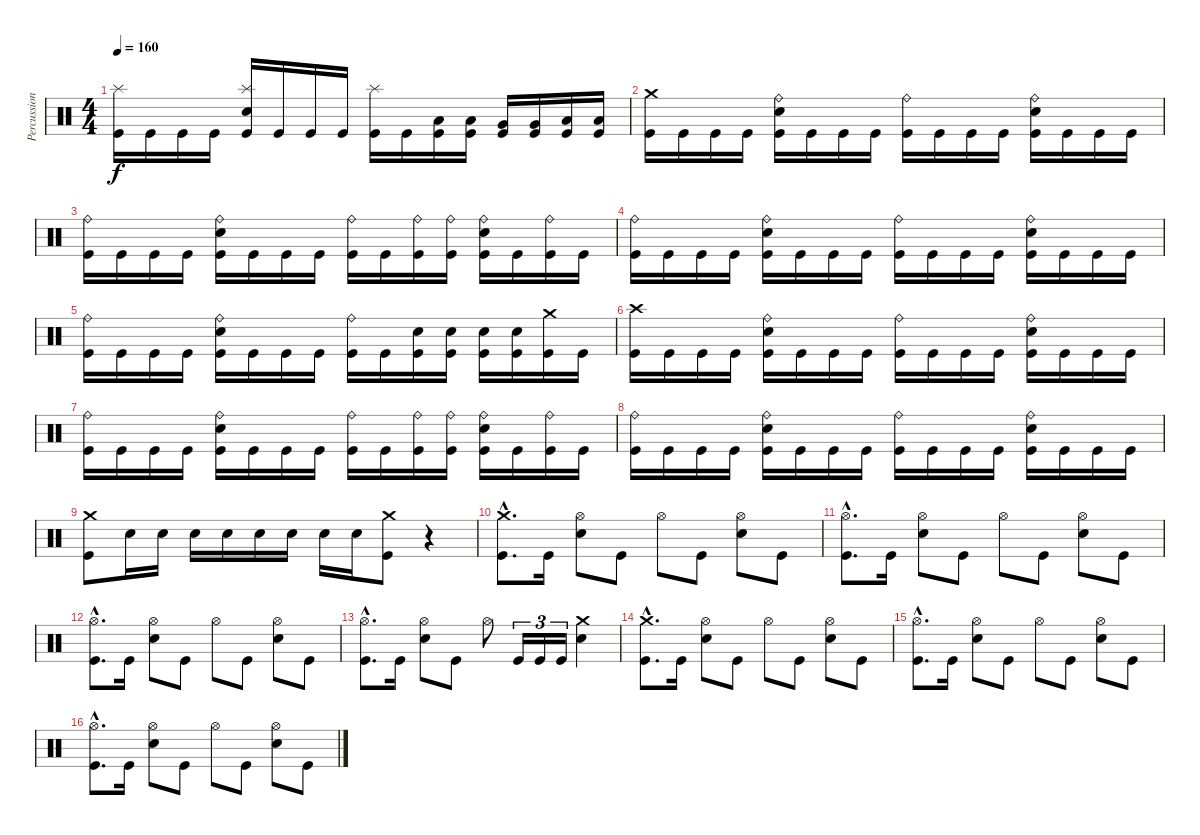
\track ("Percussions" "Percussion") {instrument percussion}
\staff {score}
\articulation defaults
\ts (4 4)
\tempo 160
\clef neutral
\ks c
("Kick (hit)" "Splash (hit)").16{dy f} "Kick (hit)".16 "Kick (hit)".16 "Kick (hit)".16 ("Kick (hit)" "Electric Snare (hit)" "Splash (hit)").16 "Kick (hit)".16 "Kick (hit)".16 "Kick (hit)".16 ("Kick (hit)" "Splash (hit)").16 "Kick (hit)".16 ("Kick (hit)" "Low Tom (hit)").16 ("Kick (hit)" "Low Tom (hit)").16 ("Kick (hit)" "Very Low Tom (hit)").16 ("Kick (hit)" "Very Low Tom (hit)").16 ("Kick (hit)" "Low Floor Tom (hit)").16 ("Kick (hit)" "Low Floor Tom (hit)").16 |
("Kick (hit)" "Crash medium (hit)").16 "Kick (hit)".16 "Kick (hit)".16 "Kick (hit)".16 ("Kick (hit)" "Electric Snare (hit)" "Ride (bell)").16 "Kick (hit)".16 "Kick (hit)".16 "Kick (hit)".16 ("Kick (hit)" "Ride (bell)").16 "Kick (hit)".16 "Kick (hit)".16 "Kick (hit)".16 ("Kick (hit)" "Electric Snare (hit)" "Ride (bell)").16 "Kick (hit)".16 "Kick (hit)".16 "Kick (hit)".16 |
("Kick (hit)" "Ride (bell)").16 "Kick (hit)".16 "Kick (hit)".16 "Kick (hit)".16 ("Kick (hit)" "Electric Snare (hit)" "Ride (bell)").16 "Kick (hit)".16 "Kick (hit)".16 "Kick (hit)".16 ("Kick (hit)" "Ride (bell)").16 "Kick (hit)".16 ("Kick (hit)" "Ride (bell)").16 ("Kick (hit)" "Ride (bell)").16 ("Kick (hit)" "Electric Snare (hit)" "Ride (bell)").16 "Kick (hit)".16 ("Kick (hit)" "Ride (bell)").16 "Kick (hit)".16 |
("Kick (hit)" "Ride (bell)").16 "Kick (hit)".16 "Kick (hit)".16 "Kick (hit)".16 ("Kick (hit)" "Electric Snare (hit)" "Ride (bell)").16 "Kick (hit)".16 "Kick (hit)".16 "Kick (hit)".16 ("Kick (hit)" "Ride (bell)").16 "Kick (hit)".16 "Kick (hit)".16 "Kick (hit)".16 ("Kick (hit)" "Electric Snare (hit)" "Ride (bell)").16 "Kick (hit)".16 "Kick (hit)".16 "Kick (hit)".16 |
("Kick (hit)" "Ride (bell)").16 "Kick (hit)".16 "Kick (hit)".16 "Kick (hit)".16 ("Kick (hit)" "Electric Snare (hit)" "Ride (bell)").16 "Kick (hit)".16 "Kick (hit)".16 "Kick (hit)".16 ("Kick (hit)" "Ride (bell)").16 "Kick (hit)".16 ("Kick (hit)" "Electric Snare (hit)").16 ("Kick (hit)" "Electric Snare (hit)").16 ("Kick (hit)" "Electric Snare (hit)").16 ("Kick (hit)" "Electric Snare (hit)").16 ("Kick (hit)" "Crash medium (hit)").16 "Kick (hit)".16 |
("Kick (hit)" "Crash high (hit)").16 "Kick (hit)".16 "Kick (hit)".16 "Kick (hit)".16 ("Kick (hit)" "Electric Snare (hit)" "Ride (bell)").16 "Kick (hit)".16 "Kick (hit)".16 "Kick (hit)".16 ("Kick (hit)" "Ride (bell)").16 "Kick (hit)".16 "Kick (hit)".16 "Kick (hit)".16 ("Kick (hit)" "Electric Snare (hit)" "Ride (bell)").16 "Kick (hit)".16 "Kick (hit)".16 "Kick (hit)".16 |
("Kick (hit)" "Ride (bell)").16 "Kick (hit)".16 "Kick (hit)".16 "Kick (hit)".16 ("Kick (hit)" "Electric Snare (hit)" "Ride (bell)").16 "Kick (hit)".16 "Kick (hit)".16 "Kick (hit)".16 ("Kick (hit)" "Ride (bell)").16 "Kick (hit)".16 ("Kick (hit)" "Ride (bell)").16 ("Kick (hit)" "Ride (bell)").16 ("Kick (hit)" "Electric Snare (hit)" "Ride (bell)").16 "Kick (hit)".16 ("Kick (hit)" "Ride (bell)").16 "Kick (hit)".16 |
("Kick (hit)" "Ride (bell)").16 "Kick (hit)".16 "Kick (hit)".16 "Kick (hit)".16 ("Kick (hit)" "Electric Snare (hit)" "Ride (bell)").16 "Kick (hit)".16 "Kick (hit)".16 "Kick (hit)".16 ("Kick (hit)" "Ride (bell)").16 "Kick (hit)".16 "Kick (hit)".16 "Kick (hit)".16 ("Kick (hit)" "Electric Snare (hit)" "Ride (bell)").16 "Kick (hit)".16 "Kick (hit)".16 "Kick (hit)".16 |
("Kick (hit)" "Crash medium (hit)").8 "Electric Snare (hit)".16 "Electric Snare (hit)".16 "Electric Snare (hit)".16 "Electric Snare (hit)".16 "Electric Snare (hit)".16 "Electric Snare (hit)".16 "Electric Snare (hit)".16 "Electric Snare (hit)".16 ("Kick (hit)" "Crash medium (hit)").8 r.4 |
("Kick (hit)"{hac} "Crash medium (hit)"{hac}).8{d} "Kick (hit)".16 ("Electric Snare (hit)" "Hi-Hat (open)").8 "Kick (hit)".8 "Hi-Hat (open)".8 "Kick (hit)".8 ("Electric Snare (hit)" "Hi-Hat (open)").8 "Kick (hit)".8 |
("Kick (hit)"{hac} "Hi-Hat (open)"{hac}).8{d} "Kick (hit)".16 ("Electric Snare (hit)" "Hi-Hat (open)").8 "Kick (hit)".8 "Hi-Hat (open)".8 "Kick (hit)".8 ("Electric Snare (hit)" "Hi-Hat (open)").8 "Kick (hit)".8 |
("Kick (hit)"{hac} "Hi-Hat (open)"{hac}).8{d} "Kick (hit)".16 ("Electric Snare (hit)" "Hi-Hat (open)").8 "Kick (hit)".8 "Hi-Hat (open)".8 "Kick (hit)".8 ("Electric Snare (hit)" "Hi-Hat (open)").8 "Kick (hit)".8 |
("Kick (hit)"{hac} "Hi-Hat (open)"{hac}).8{d} "Kick (hit)".16 ("Electric Snare (hit)" "Hi-Hat (open)").8 "Kick (hit)".8 "Hi-Hat (open)".8 "Kick (hit)".16{tu (3 2)} "Kick (hit)".16{tu (3 2)} "Kick (hit)".16{tu (3 2)} ("Electric Snare (hit)" "Crash medium (hit)").4 |
("Kick (hit)"{hac} "Crash medium (hit)"{hac}).8{d} "Kick (hit)".16 ("Electric Snare (hit)" "Hi-Hat (open)").8 "Kick (hit)".8 "Hi-Hat (open)".8 "Kick (hit)".8 ("Electric Snare (hit)" "Hi-Hat (open)").8 "Kick (hit)".8 |
("Kick (hit)"{hac} "Hi-Hat (open)"{hac}).8{d} "Kick (hit)".16 ("Electric Snare (hit)" "Hi-Hat (open)").8 "Kick (hit)".8 "Hi-Hat (open)".8 "Kick (hit)".8 ("Electric Snare (hit)" "Hi-Hat (open)").8 "Kick (hit)".8 |
("Kick (hit)"{hac} "Hi-Hat (open)"{hac}).8{d} "Kick (hit)".16 ("Electric Snare (hit)" "Hi-Hat (open)").8 "Kick (hit)".8 "Hi-Hat (open)".8 "Kick (hit)".8 ("Electric Snare (hit)" "Hi-Hat (open)").8 "Kick (hit)".8
